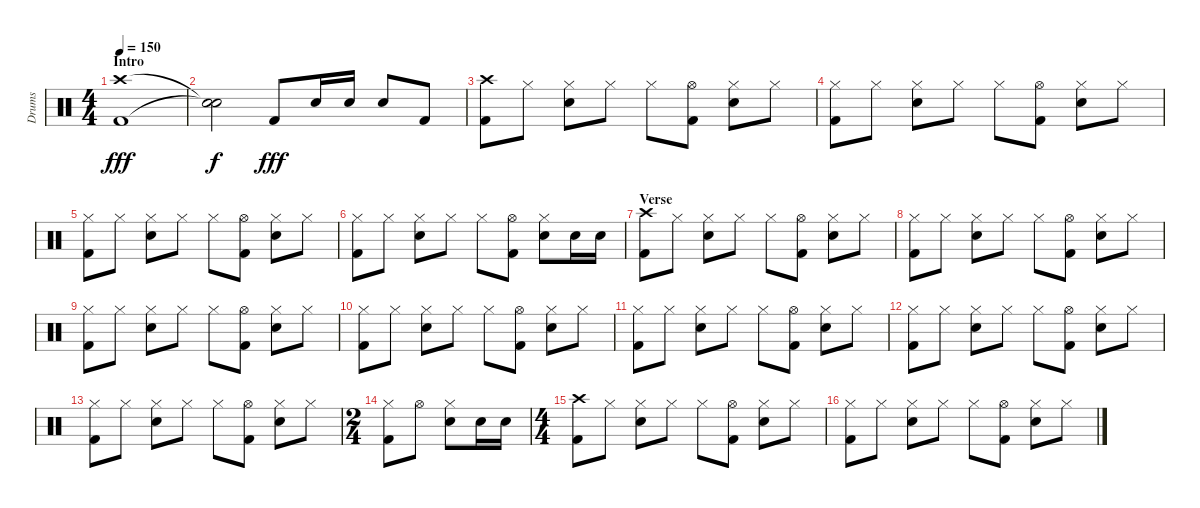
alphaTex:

\track ("Drums" "Drums") {instrument percussion}
\staff {score}
\articulation defaults
\ts (4 4)
\section ("" "Intro")
\tempo 150
\clef neutral
\ks c
("Crash high (hit)" "Kick (hit) 2").1{dy fff} |
("Snare (hit)"{t} "Snare (hit)"{t}).2{dy f} "Kick (hit) 2".8{dy fff} "Snare (hit) 2".16 "Snare (hit) 2".16 "Snare (hit) 2".8 "Kick (hit) 2".8 |
("Crash high (hit)" "Kick (hit) 2").8 "Hi-Hat (closed)".8 ("Hi-Hat (closed)" "Snare (hit) 2").8 "Hi-Hat (closed)".8 "Hi-Hat (closed)".8 ("Hi-Hat (open)" "Kick (hit) 2").8 ("Hi-Hat (closed)" "Snare (hit) 2").8 "Hi-Hat (closed)".8 |
("Hi-Hat (closed)" "Kick (hit) 2").8 "Hi-Hat (closed)".8 ("Hi-Hat (closed)" "Snare (hit) 2").8 "Hi-Hat (closed)".8 "Hi-Hat (closed)".8 ("Hi-Hat (open)" "Kick (hit) 2").8 ("Hi-Hat (closed)" "Snare (hit) 2").8 "Hi-Hat (closed)".8 |
("Hi-Hat (closed)" "Kick (hit) 2").8 "Hi-Hat (closed)".8 ("Hi-Hat (closed)" "Snare (hit) 2").8 "Hi-Hat (closed)".8 "Hi-Hat (closed)".8 ("Hi-Hat (open)" "Kick (hit) 2").8 ("Hi-Hat (closed)" "Snare (hit) 2").8 "Hi-Hat (closed)".8 |
("Hi-Hat (closed)" "Kick (hit) 2").8 "Hi-Hat (closed)".8 ("Hi-Hat (closed)" "Snare (hit) 2").8 "Hi-Hat (closed)".8 "Hi-Hat (closed)".8 ("Hi-Hat (open)" "Kick (hit) 2").8 ("Hi-Hat (closed)" "Snare (hit) 2").8 "Snare (hit) 2".16 "Snare (hit) 2".16 |
\section ("" "Verse")
("Crash high (hit)" "Kick (hit) 2").8 "Hi-Hat (closed)".8 ("Hi-Hat (closed)" "Snare (hit) 2").8 "Hi-Hat (closed)".8 "Hi-Hat (closed)".8 ("Hi-Hat (open)" "Kick (hit) 2").8 ("Hi-Hat (closed)" "Snare (hit) 2").8 "Hi-Hat (closed)".8 |
("Hi-Hat (closed)" "Kick (hit) 2").8 "Hi-Hat (closed)".8 ("Hi-Hat (closed)" "Snare (hit) 2").8 "Hi-Hat (closed)".8 "Hi-Hat (closed)".8 ("Hi-Hat (open)" "Kick (hit) 2").8 ("Hi-Hat (closed)" "Snare (hit) 2").8 "Hi-Hat (closed)".8 |
("Hi-Hat (closed)" "Kick (hit) 2").8 "Hi-Hat (closed)".8 ("Hi-Hat (closed)" "Snare (hit) 2").8 "Hi-Hat (closed)".8 "Hi-Hat (closed)".8 ("Hi-Hat (open)" "Kick (hit) 2").8 ("Hi-Hat (closed)" "Snare (hit) 2").8 "Hi-Hat (closed)".8 |
("Hi-Hat (closed)" "Kick (hit) 2").8 "Hi-Hat (closed)".8 ("Hi-Hat (closed)" "Snare (hit) 2").8 "Hi-Hat (closed)".8 "Hi-Hat (closed)".8 ("Hi-Hat (open)" "Kick (hit) 2").8 ("Hi-Hat (closed)" "Snare (hit) 2").8 "Hi-Hat (closed)".8 |
("Hi-Hat (closed)" "Kick (hit) 2").8 "Hi-Hat (closed)".8 ("Hi-Hat (closed)" "Snare (hit) 2").8 "Hi-Hat (closed)".8 "Hi-Hat (closed)".8 ("Hi-Hat (open)" "Kick (hit) 2").8 ("Hi-Hat (closed)" "Snare (hit) 2").8 "Hi-Hat (closed)".8 |
("Hi-Hat (closed)" "Kick (hit) 2").8 "Hi-Hat (closed)".8 ("Hi-Hat (closed)" "Snare (hit) 2").8 "Hi-Hat (closed)".8 "Hi-Hat (closed)".8 ("Hi-Hat (open)" "Kick (hit) 2").8 ("Hi-Hat (closed)" "Snare (hit) 2").8 "Hi-Hat (closed)".8 |
("Hi-Hat (closed)" "Kick (hit) 2").8 "Hi-Hat (closed)".8 ("Hi-Hat (closed)" "Snare (hit) 2").8 "Hi-Hat (closed)".8 "Hi-Hat (closed)".8 ("Hi-Hat (open)" "Kick (hit) 2").8 ("Hi-Hat (closed)" "Snare (hit) 2").8 "Hi-Hat (closed)".8 |
\ts (2 4)
("Hi-Hat (closed)" "Kick (hit) 2").8 "Hi-Hat (open)".8 ("Hi-Hat (closed)" "Snare (hit) 2").8 "Snare (hit) 2".16 "Snare (hit) 2".16 |
\ts (4 4)
("Crash high (hit)" "Kick (hit) 2").8 "Hi-Hat (closed)".8 ("Hi-Hat (closed)" "Snare (hit) 2").8 "Hi-Hat (closed)".8 "Hi-Hat (closed)".8 ("Hi-Hat (open)" "Kick (hit) 2").8 ("Hi-Hat (closed)" "Snare (hit) 2").8 "Hi-Hat (closed)".8 |
("Hi-Hat (closed)" "Kick (hit) 2").8 "Hi-Hat (closed)".8 ("Hi-Hat (closed)" "Snare (hit) 2").8 "Hi-Hat (closed)".8 "Hi-Hat (closed)".8 ("Hi-Hat (open)" "Kick (hit) 2").8 ("Hi-Hat (closed)" "Snare (hit) 2").8 "Hi-Hat (closed)".8
